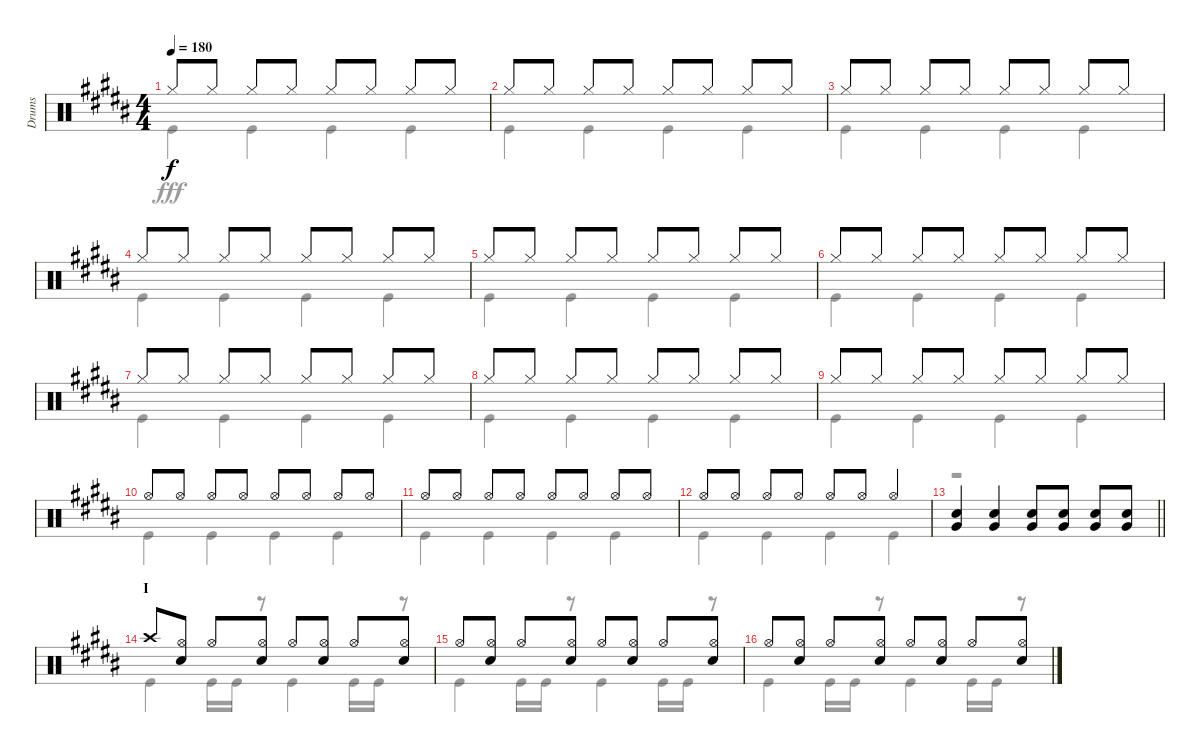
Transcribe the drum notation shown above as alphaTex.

\track ("Drums" "Drums") {instrument percussion}
\staff {score}
\articulation defaults
\voice
\ts (4 4)
\tempo 180
\clef neutral
\ks b "Hi-Hat (closed)".8{dy f} "Hi-Hat (closed)".8 "Hi-Hat (closed)".8 "Hi-Hat (closed)".8 "Hi-Hat (closed)".8 "Hi-Hat (closed)".8 "Hi-Hat (closed)".8 "Hi-Hat (closed)".8
|
"Hi-Hat (closed)".8 "Hi-Hat (closed)".8 "Hi-Hat (closed)".8 "Hi-Hat (closed)".8 "Hi-Hat (closed)".8 "Hi-Hat (closed)".8 "Hi-Hat (closed)".8 "Hi-Hat (closed)".8 |
"Hi-Hat (closed)".8 "Hi-Hat (closed)".8 "Hi-Hat (closed)".8 "Hi-Hat (closed)".8 "Hi-Hat (closed)".8 "Hi-Hat (closed)".8 "Hi-Hat (closed)".8 "Hi-Hat (closed)".8 |
"Hi-Hat (closed)".8 "Hi-Hat (closed)".8 "Hi-Hat (closed)".8 "Hi-Hat (closed)".8 "Hi-Hat (closed)".8 "Hi-Hat (closed)".8 "Hi-Hat (closed)".8 "Hi-Hat (closed)".8 |
"Hi-Hat (closed)".8 "Hi-Hat (closed)".8 "Hi-Hat (closed)".8 "Hi-Hat (closed)".8 "Hi-Hat (closed)".8 "Hi-Hat (closed)".8 "Hi-Hat (closed)".8 "Hi-Hat (closed)".8 |
"Hi-Hat (closed)".8 "Hi-Hat (closed)".8 "Hi-Hat (closed)".8 "Hi-Hat (closed)".8 "Hi-Hat (closed)".8 "Hi-Hat (closed)".8 "Hi-Hat (closed)".8 "Hi-Hat (closed)".8 |
"Hi-Hat (closed)".8 "Hi-Hat (closed)".8 "Hi-Hat (closed)".8 "Hi-Hat (closed)".8 "Hi-Hat (closed)".8 "Hi-Hat (closed)".8 "Hi-Hat (closed)".8 "Hi-Hat (closed)".8 |
"Hi-Hat (closed)".8 "Hi-Hat (closed)".8 "Hi-Hat (closed)".8 "Hi-Hat (closed)".8 "Hi-Hat (closed)".8 "Hi-Hat (closed)".8 "Hi-Hat (closed)".8 "Hi-Hat (closed)".8 |
"Hi-Hat (closed)".8 "Hi-Hat (closed)".8 "Hi-Hat (closed)".8 "Hi-Hat (closed)".8 "Hi-Hat (closed)".8 "Hi-Hat (closed)".8 "Hi-Hat (closed)".8 "Hi-Hat (closed)".8 |
"Hi-Hat (open)".8 "Hi-Hat (open)".8 "Hi-Hat (open)".8 "Hi-Hat (open)".8 "Hi-Hat (open)".8 "Hi-Hat (open)".8 "Hi-Hat (open)".8 "Hi-Hat (open)".8 |
"Hi-Hat (open)".8 "Hi-Hat (open)".8 "Hi-Hat (open)".8 "Hi-Hat (open)".8 "Hi-Hat (open)".8 "Hi-Hat (open)".8 "Hi-Hat (open)".8 "Hi-Hat (open)".8 |
"Hi-Hat (open)".8 "Hi-Hat (open)".8 "Hi-Hat (open)".8 "Hi-Hat (open)".8 "Hi-Hat (open)".8 "Hi-Hat (open)".8 "Hi-Hat (open)".4 |
\barLineRight lightlight
("Snare (hit) 2" "Very Low Tom (hit)").4 ("Snare (hit) 2" "Very Low Tom (hit)").4 ("Snare (hit) 2" "Very Low Tom (hit)").8 ("Snare (hit) 2" "Very Low Tom (hit)").8 ("Snare (hit) 2" "Very Low Tom (hit)").8 ("Snare (hit) 2" "Very Low Tom (hit)").8 |
\section ("" "I")
"Crash high (hit)".8 ("Hi-Hat (open)" "Snare (hit) 2").8 "Hi-Hat (open)".8 ("Hi-Hat (open)" "Snare (hit) 2").8 "Hi-Hat (open)".8 ("Hi-Hat (open)" "Snare (hit) 2").8 "Hi-Hat (open)".8 ("Hi-Hat (open)" "Snare (hit) 2").8 |
"Hi-Hat (open)".8 ("Hi-Hat (open)" "Snare (hit) 2").8 "Hi-Hat (open)".8 ("Hi-Hat (open)" "Snare (hit) 2").8 "Hi-Hat (open)".8 ("Hi-Hat (open)" "Snare (hit) 2").8 "Hi-Hat (open)".8 ("Hi-Hat (open)" "Snare (hit) 2").8 |
"Hi-Hat (open)".8 ("Hi-Hat (open)" "Snare (hit) 2").8 "Hi-Hat (open)".8 ("Hi-Hat (open)" "Snare (hit) 2").8 "Hi-Hat (open)".8 ("Hi-Hat (open)" "Snare (hit) 2").8 "Hi-Hat (open)".8 ("Hi-Hat (open)" "Snare (hit) 2").8
\voice
\clef neutral
\ottava regular
\simile none
\ks b "Kick (hit)".4{dy fff} "Kick (hit)".4 "Kick (hit)".4 "Kick (hit)".4
|
"Kick (hit)".4 "Kick (hit)".4 "Kick (hit)".4 "Kick (hit)".4 |
"Kick (hit)".4 "Kick (hit)".4 "Kick (hit)".4 "Kick (hit)".4 |
"Kick (hit)".4 "Kick (hit)".4 "Kick (hit)".4 "Kick (hit)".4 |
"Kick (hit)".4 "Kick (hit)".4 "Kick (hit)".4 "Kick (hit)".4 |
"Kick (hit)".4 "Kick (hit)".4 "Kick (hit)".4 "Kick (hit)".4 |
"Kick (hit)".4 "Kick (hit)".4 "Kick (hit)".4 "Kick (hit)".4 |
"Kick (hit)".4 "Kick (hit)".4 "Kick (hit)".4 "Kick (hit)".4 |
"Kick (hit)".4 "Kick (hit)".4 "Kick (hit)".4 "Kick (hit)".4 |
"Kick (hit)".4 "Kick (hit)".4 "Kick (hit)".4 "Kick (hit)".4 |
"Kick (hit)".4 "Kick (hit)".4 "Kick (hit)".4 "Kick (hit)".4 |
"Kick (hit)".4 "Kick (hit)".4 "Kick (hit)".4 "Kick (hit)".4 |
\barLineRight lightlight
r.1 |
"Kick (hit)".4 "Kick (hit)".16 "Kick (hit)".16 r.8 "Kick (hit)".4 "Kick (hit)".16 "Kick (hit)".16 r.8 |
"Kick (hit)".4 "Kick (hit)".16 "Kick (hit)".16 r.8 "Kick (hit)".4 "Kick (hit)".16 "Kick (hit)".16 r.8 |
"Kick (hit)".4 "Kick (hit)".16 "Kick (hit)".16 r.8 "Kick (hit)".4 "Kick (hit)".16 "Kick (hit)".16 r.8
